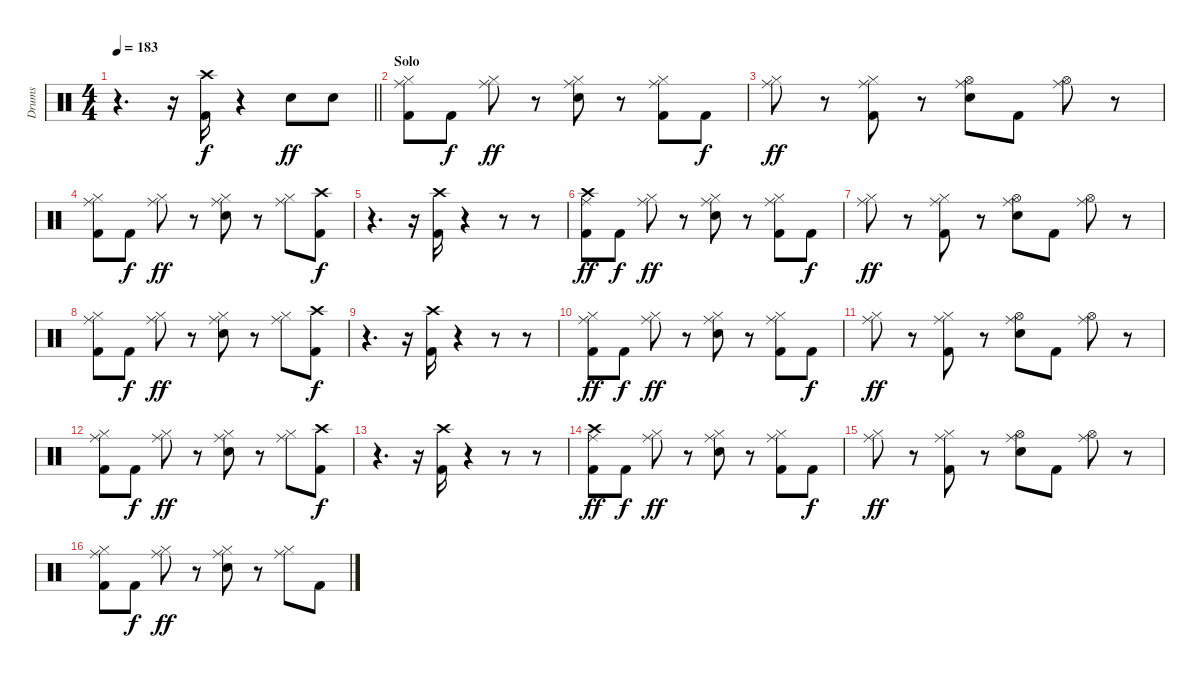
\track ("Drums" "Drums") {instrument percussion}
\staff {score}
\articulation defaults
\ts (4 4)
\tempo 183
\clef neutral
\barLineRight lightlight
\ks c
r.4{d dy f} r.16 ("Crash high (hit)" "Kick (hit) 2").16 r.4 "Snare (hit) 2".8{dy ff} "Snare (hit) 2".8 |
\section ("" "Solo")
("Hi-Hat (closed)" "Ride (middle)" "Kick (hit) 2").8 "Kick (hit) 2".8{dy f} ("Hi-Hat (closed)" "Ride (middle)").8{dy ff} r.8 ("Hi-Hat (closed)" "Ride (middle)" "Snare (hit) 2").8 r.8 ("Hi-Hat (closed)" "Ride (middle)" "Kick (hit) 2").8 "Kick (hit) 2".8{dy f} |
("Hi-Hat (closed)" "Ride (middle)").8{dy ff} r.8 ("Hi-Hat (closed)" "Ride (middle)" "Kick (hit) 2").8 r.8 ("Hi-Hat (open)" "Ride (middle)" "Snare (hit) 2").8 "Kick (hit) 2".8 ("Hi-Hat (open)" "Ride (middle)").8 r.8 |
("Hi-Hat (closed)" "Ride (middle)" "Kick (hit) 2").8 "Kick (hit) 2".8{dy f} ("Hi-Hat (closed)" "Ride (middle)").8{dy ff} r.8 ("Hi-Hat (closed)" "Ride (middle)" "Snare (hit) 2").8 r.8 ("Hi-Hat (closed)" "Ride (middle)").8 ("Crash high (hit)" "Kick (hit) 2").8{dy f} |
r.4{d} r.16 ("Crash high (hit)" "Kick (hit) 2").16 r.4 r.8 r.8 |
("Crash high (hit)" "Ride (middle)" "Kick (hit) 2").8{dy ff} "Kick (hit) 2".8{dy f} ("Hi-Hat (closed)" "Ride (middle)").8{dy ff} r.8 ("Hi-Hat (closed)" "Ride (middle)" "Snare (hit) 2").8 r.8 ("Hi-Hat (closed)" "Ride (middle)" "Kick (hit) 2").8 "Kick (hit) 2".8{dy f} |
("Hi-Hat (closed)" "Ride (middle)").8{dy ff} r.8 ("Hi-Hat (closed)" "Ride (middle)" "Kick (hit) 2").8 r.8 ("Hi-Hat (open)" "Ride (middle)" "Snare (hit) 2").8 "Kick (hit) 2".8 ("Hi-Hat (open)" "Ride (middle)").8 r.8 |
("Hi-Hat (closed)" "Ride (middle)" "Kick (hit) 2").8 "Kick (hit) 2".8{dy f} ("Hi-Hat (closed)" "Ride (middle)").8{dy ff} r.8 ("Hi-Hat (closed)" "Ride (middle)" "Snare (hit) 2").8 r.8 ("Hi-Hat (closed)" "Ride (middle)").8 ("Crash high (hit)" "Kick (hit) 2").8{dy f} |
r.4{d} r.16 ("Crash high (hit)" "Kick (hit) 2").16 r.4 r.8 r.8 |
("Hi-Hat (closed)" "Ride (middle)" "Kick (hit) 2").8{dy ff} "Kick (hit) 2".8{dy f} ("Hi-Hat (closed)" "Ride (middle)").8{dy ff} r.8 ("Hi-Hat (closed)" "Ride (middle)" "Snare (hit) 2").8 r.8 ("Hi-Hat (closed)" "Ride (middle)" "Kick (hit) 2").8 "Kick (hit) 2".8{dy f} |
("Hi-Hat (closed)" "Ride (middle)").8{dy ff} r.8 ("Hi-Hat (closed)" "Ride (middle)" "Kick (hit) 2").8 r.8 ("Hi-Hat (open)" "Ride (middle)" "Snare (hit) 2").8 "Kick (hit) 2".8 ("Hi-Hat (open)" "Ride (middle)").8 r.8 |
("Hi-Hat (closed)" "Ride (middle)" "Kick (hit) 2").8 "Kick (hit) 2".8{dy f} ("Hi-Hat (closed)" "Ride (middle)").8{dy ff} r.8 ("Hi-Hat (closed)" "Ride (middle)" "Snare (hit) 2").8 r.8 ("Hi-Hat (closed)" "Ride (middle)").8 ("Crash high (hit)" "Kick (hit) 2").8{dy f} |
r.4{d} r.16 ("Crash high (hit)" "Kick (hit) 2").16 r.4 r.8 r.8 |
("Crash high (hit)" "Ride (middle)" "Kick (hit) 2").8{dy ff} "Kick (hit) 2".8{dy f} ("Hi-Hat (closed)" "Ride (middle)").8{dy ff} r.8 ("Hi-Hat (closed)" "Ride (middle)" "Snare (hit) 2").8 r.8 ("Hi-Hat (closed)" "Ride (middle)" "Kick (hit) 2").8 "Kick (hit) 2".8{dy f} |
("Hi-Hat (closed)" "Ride (middle)").8{dy ff} r.8 ("Hi-Hat (closed)" "Ride (middle)" "Kick (hit) 2").8 r.8 ("Hi-Hat (open)" "Ride (middle)" "Snare (hit) 2").8 "Kick (hit) 2".8 ("Hi-Hat (open)" "Ride (middle)").8 r.8 |
("Hi-Hat (closed)" "Ride (middle)" "Kick (hit) 2").8 "Kick (hit) 2".8{dy f} ("Hi-Hat (closed)" "Ride (middle)").8{dy ff} r.8 ("Hi-Hat (closed)" "Ride (middle)" "Snare (hit) 2").8 r.8 ("Hi-Hat (closed)" "Ride (middle)").8 "Kick (hit) 2".8
